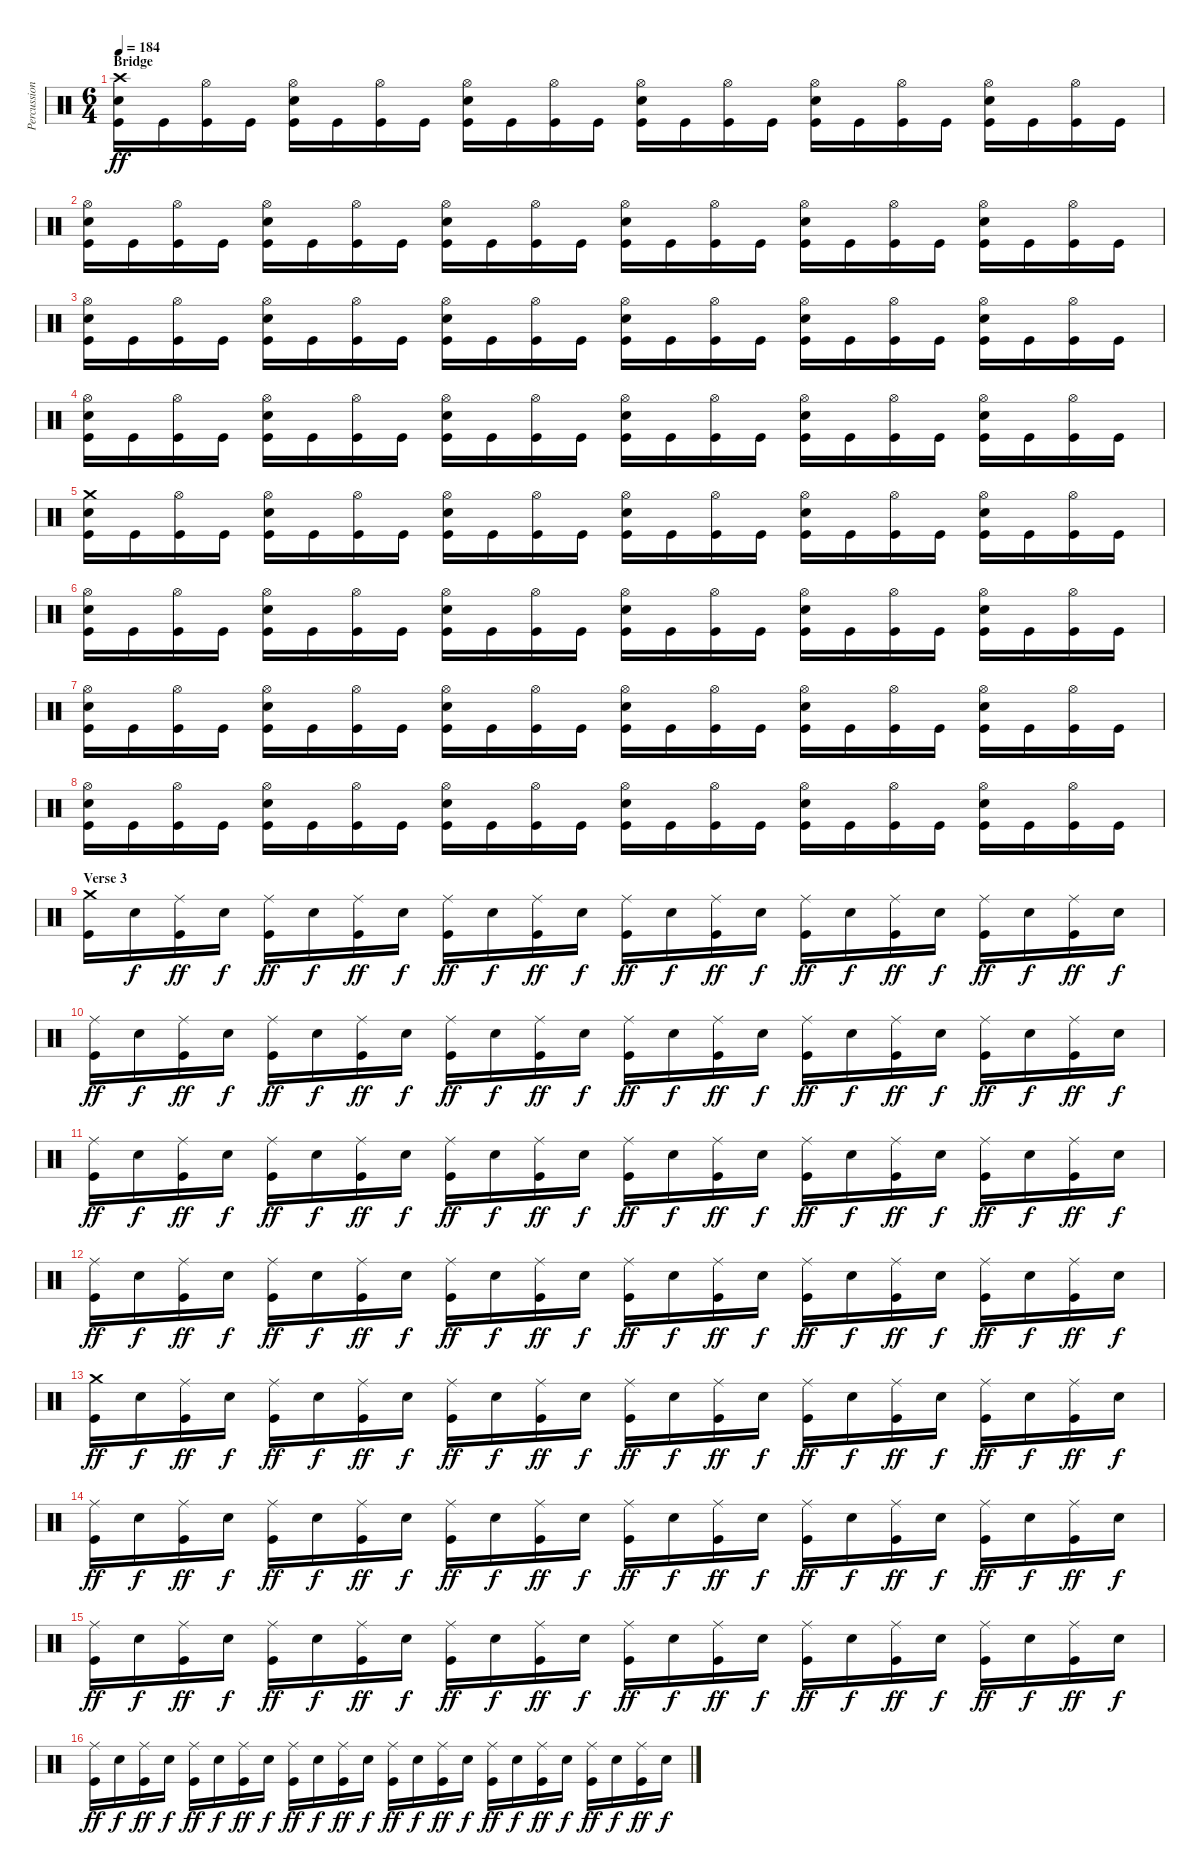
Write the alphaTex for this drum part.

\track ("Percussion" "Percussion") {instrument percussion}
\staff {score}
\articulation defaults
\ts (6 4)
\section ("" "Bridge")
\tempo 184
\clef neutral
\ks c
("Crash high (hit)" "Electric Snare (hit)" "Kick (hit)").16{dy ff} "Kick (hit)".16 ("Hi-Hat (open)" "Kick (hit)").16 "Kick (hit)".16 ("Hi-Hat (open)" "Electric Snare (hit)" "Kick (hit)").16 "Kick (hit)".16 ("Hi-Hat (open)" "Kick (hit)").16 "Kick (hit)".16 ("Hi-Hat (open)" "Electric Snare (hit)" "Kick (hit)").16 "Kick (hit)".16 ("Hi-Hat (open)" "Kick (hit)").16 "Kick (hit)".16 ("Hi-Hat (open)" "Electric Snare (hit)" "Kick (hit)").16 "Kick (hit)".16 ("Hi-Hat (open)" "Kick (hit)").16 "Kick (hit)".16 ("Hi-Hat (open)" "Electric Snare (hit)" "Kick (hit)").16 "Kick (hit)".16 ("Hi-Hat (open)" "Kick (hit)").16 "Kick (hit)".16 ("Hi-Hat (open)" "Electric Snare (hit)" "Kick (hit)").16 "Kick (hit)".16 ("Hi-Hat (open)" "Kick (hit)").16 "Kick (hit)".16 |
("Hi-Hat (open)" "Electric Snare (hit)" "Kick (hit)").16 "Kick (hit)".16 ("Hi-Hat (open)" "Kick (hit)").16 "Kick (hit)".16 ("Hi-Hat (open)" "Electric Snare (hit)" "Kick (hit)").16 "Kick (hit)".16 ("Hi-Hat (open)" "Kick (hit)").16 "Kick (hit)".16 ("Hi-Hat (open)" "Electric Snare (hit)" "Kick (hit)").16 "Kick (hit)".16 ("Hi-Hat (open)" "Kick (hit)").16 "Kick (hit)".16 ("Hi-Hat (open)" "Electric Snare (hit)" "Kick (hit)").16 "Kick (hit)".16 ("Hi-Hat (open)" "Kick (hit)").16 "Kick (hit)".16 ("Hi-Hat (open)" "Electric Snare (hit)" "Kick (hit)").16 "Kick (hit)".16 ("Hi-Hat (open)" "Kick (hit)").16 "Kick (hit)".16 ("Hi-Hat (open)" "Electric Snare (hit)" "Kick (hit)").16 "Kick (hit)".16 ("Hi-Hat (open)" "Kick (hit)").16 "Kick (hit)".16 |
("Hi-Hat (open)" "Electric Snare (hit)" "Kick (hit)").16 "Kick (hit)".16 ("Hi-Hat (open)" "Kick (hit)").16 "Kick (hit)".16 ("Hi-Hat (open)" "Electric Snare (hit)" "Kick (hit)").16 "Kick (hit)".16 ("Hi-Hat (open)" "Kick (hit)").16 "Kick (hit)".16 ("Hi-Hat (open)" "Electric Snare (hit)" "Kick (hit)").16 "Kick (hit)".16 ("Hi-Hat (open)" "Kick (hit)").16 "Kick (hit)".16 ("Hi-Hat (open)" "Electric Snare (hit)" "Kick (hit)").16 "Kick (hit)".16 ("Hi-Hat (open)" "Kick (hit)").16 "Kick (hit)".16 ("Hi-Hat (open)" "Electric Snare (hit)" "Kick (hit)").16 "Kick (hit)".16 ("Hi-Hat (open)" "Kick (hit)").16 "Kick (hit)".16 ("Hi-Hat (open)" "Electric Snare (hit)" "Kick (hit)").16 "Kick (hit)".16 ("Hi-Hat (open)" "Kick (hit)").16 "Kick (hit)".16 |
("Hi-Hat (open)" "Electric Snare (hit)" "Kick (hit)").16 "Kick (hit)".16 ("Hi-Hat (open)" "Kick (hit)").16 "Kick (hit)".16 ("Hi-Hat (open)" "Electric Snare (hit)" "Kick (hit)").16 "Kick (hit)".16 ("Hi-Hat (open)" "Kick (hit)").16 "Kick (hit)".16 ("Hi-Hat (open)" "Electric Snare (hit)" "Kick (hit)").16 "Kick (hit)".16 ("Hi-Hat (open)" "Kick (hit)").16 "Kick (hit)".16 ("Hi-Hat (open)" "Electric Snare (hit)" "Kick (hit)").16 "Kick (hit)".16 ("Hi-Hat (open)" "Kick (hit)").16 "Kick (hit)".16 ("Hi-Hat (open)" "Electric Snare (hit)" "Kick (hit)").16 "Kick (hit)".16 ("Hi-Hat (open)" "Kick (hit)").16 "Kick (hit)".16 ("Hi-Hat (open)" "Electric Snare (hit)" "Kick (hit)").16 "Kick (hit)".16 ("Hi-Hat (open)" "Kick (hit)").16 "Kick (hit)".16 |
("Crash medium (hit)" "Electric Snare (hit)" "Kick (hit)").16 "Kick (hit)".16 ("Hi-Hat (open)" "Kick (hit)").16 "Kick (hit)".16 ("Hi-Hat (open)" "Electric Snare (hit)" "Kick (hit)").16 "Kick (hit)".16 ("Hi-Hat (open)" "Kick (hit)").16 "Kick (hit)".16 ("Hi-Hat (open)" "Electric Snare (hit)" "Kick (hit)").16 "Kick (hit)".16 ("Hi-Hat (open)" "Kick (hit)").16 "Kick (hit)".16 ("Hi-Hat (open)" "Electric Snare (hit)" "Kick (hit)").16 "Kick (hit)".16 ("Hi-Hat (open)" "Kick (hit)").16 "Kick (hit)".16 ("Hi-Hat (open)" "Electric Snare (hit)" "Kick (hit)").16 "Kick (hit)".16 ("Hi-Hat (open)" "Kick (hit)").16 "Kick (hit)".16 ("Hi-Hat (open)" "Electric Snare (hit)" "Kick (hit)").16 "Kick (hit)".16 ("Hi-Hat (open)" "Kick (hit)").16 "Kick (hit)".16 |
("Hi-Hat (open)" "Electric Snare (hit)" "Kick (hit)").16 "Kick (hit)".16 ("Hi-Hat (open)" "Kick (hit)").16 "Kick (hit)".16 ("Hi-Hat (open)" "Electric Snare (hit)" "Kick (hit)").16 "Kick (hit)".16 ("Hi-Hat (open)" "Kick (hit)").16 "Kick (hit)".16 ("Hi-Hat (open)" "Electric Snare (hit)" "Kick (hit)").16 "Kick (hit)".16 ("Hi-Hat (open)" "Kick (hit)").16 "Kick (hit)".16 ("Hi-Hat (open)" "Electric Snare (hit)" "Kick (hit)").16 "Kick (hit)".16 ("Hi-Hat (open)" "Kick (hit)").16 "Kick (hit)".16 ("Hi-Hat (open)" "Electric Snare (hit)" "Kick (hit)").16 "Kick (hit)".16 ("Hi-Hat (open)" "Kick (hit)").16 "Kick (hit)".16 ("Hi-Hat (open)" "Electric Snare (hit)" "Kick (hit)").16 "Kick (hit)".16 ("Hi-Hat (open)" "Kick (hit)").16 "Kick (hit)".16 |
("Hi-Hat (open)" "Electric Snare (hit)" "Kick (hit)").16 "Kick (hit)".16 ("Hi-Hat (open)" "Kick (hit)").16 "Kick (hit)".16 ("Hi-Hat (open)" "Electric Snare (hit)" "Kick (hit)").16 "Kick (hit)".16 ("Hi-Hat (open)" "Kick (hit)").16 "Kick (hit)".16 ("Hi-Hat (open)" "Electric Snare (hit)" "Kick (hit)").16 "Kick (hit)".16 ("Hi-Hat (open)" "Kick (hit)").16 "Kick (hit)".16 ("Hi-Hat (open)" "Electric Snare (hit)" "Kick (hit)").16 "Kick (hit)".16 ("Hi-Hat (open)" "Kick (hit)").16 "Kick (hit)".16 ("Hi-Hat (open)" "Electric Snare (hit)" "Kick (hit)").16 "Kick (hit)".16 ("Hi-Hat (open)" "Kick (hit)").16 "Kick (hit)".16 ("Hi-Hat (open)" "Electric Snare (hit)" "Kick (hit)").16 "Kick (hit)".16 ("Hi-Hat (open)" "Kick (hit)").16 "Kick (hit)".16 |
("Hi-Hat (open)" "Electric Snare (hit)" "Kick (hit)").16 "Kick (hit)".16 ("Hi-Hat (open)" "Kick (hit)").16 "Kick (hit)".16 ("Hi-Hat (open)" "Electric Snare (hit)" "Kick (hit)").16 "Kick (hit)".16 ("Hi-Hat (open)" "Kick (hit)").16 "Kick (hit)".16 ("Hi-Hat (open)" "Electric Snare (hit)" "Kick (hit)").16 "Kick (hit)".16 ("Hi-Hat (open)" "Kick (hit)").16 "Kick (hit)".16 ("Hi-Hat (open)" "Electric Snare (hit)" "Kick (hit)").16 "Kick (hit)".16 ("Hi-Hat (open)" "Kick (hit)").16 "Kick (hit)".16 ("Hi-Hat (open)" "Electric Snare (hit)" "Kick (hit)").16 "Kick (hit)".16 ("Hi-Hat (open)" "Kick (hit)").16 "Kick (hit)".16 ("Hi-Hat (open)" "Electric Snare (hit)" "Kick (hit)").16 "Kick (hit)".16 ("Hi-Hat (open)" "Kick (hit)").16 "Kick (hit)".16 |
\section ("" "Verse 3")
("Crash medium (hit)" "Kick (hit)").16 "Electric Snare (hit)".16{dy f} ("Ride (middle)" "Kick (hit)").16{dy ff} "Electric Snare (hit)".16{dy f} ("Ride (middle)" "Kick (hit)").16{dy ff} "Electric Snare (hit)".16{dy f} ("Ride (middle)" "Kick (hit)").16{dy ff} "Electric Snare (hit)".16{dy f} ("Ride (middle)" "Kick (hit)").16{dy ff} "Electric Snare (hit)".16{dy f} ("Ride (middle)" "Kick (hit)").16{dy ff} "Electric Snare (hit)".16{dy f} ("Ride (middle)" "Kick (hit)").16{dy ff} "Electric Snare (hit)".16{dy f} ("Ride (middle)" "Kick (hit)").16{dy ff} "Electric Snare (hit)".16{dy f} ("Ride (middle)" "Kick (hit)").16{dy ff} "Electric Snare (hit)".16{dy f} ("Ride (middle)" "Kick (hit)").16{dy ff} "Electric Snare (hit)".16{dy f} ("Ride (middle)" "Kick (hit)").16{dy ff} "Electric Snare (hit)".16{dy f} ("Ride (middle)" "Kick (hit)").16{dy ff} "Electric Snare (hit)".16{dy f} |
("Ride (middle)" "Kick (hit)").16{dy ff} "Electric Snare (hit)".16{dy f} ("Ride (middle)" "Kick (hit)").16{dy ff} "Electric Snare (hit)".16{dy f} ("Ride (middle)" "Kick (hit)").16{dy ff} "Electric Snare (hit)".16{dy f} ("Ride (middle)" "Kick (hit)").16{dy ff} "Electric Snare (hit)".16{dy f} ("Ride (middle)" "Kick (hit)").16{dy ff} "Electric Snare (hit)".16{dy f} ("Ride (middle)" "Kick (hit)").16{dy ff} "Electric Snare (hit)".16{dy f} ("Ride (middle)" "Kick (hit)").16{dy ff} "Electric Snare (hit)".16{dy f} ("Ride (middle)" "Kick (hit)").16{dy ff} "Electric Snare (hit)".16{dy f} ("Ride (middle)" "Kick (hit)").16{dy ff} "Electric Snare (hit)".16{dy f} ("Ride (middle)" "Kick (hit)").16{dy ff} "Electric Snare (hit)".16{dy f} ("Ride (middle)" "Kick (hit)").16{dy ff} "Electric Snare (hit)".16{dy f} ("Ride (middle)" "Kick (hit)").16{dy ff} "Electric Snare (hit)".16{dy f} |
("Ride (middle)" "Kick (hit)").16{dy ff} "Electric Snare (hit)".16{dy f} ("Ride (middle)" "Kick (hit)").16{dy ff} "Electric Snare (hit)".16{dy f} ("Ride (middle)" "Kick (hit)").16{dy ff} "Electric Snare (hit)".16{dy f} ("Ride (middle)" "Kick (hit)").16{dy ff} "Electric Snare (hit)".16{dy f} ("Ride (middle)" "Kick (hit)").16{dy ff} "Electric Snare (hit)".16{dy f} ("Ride (middle)" "Kick (hit)").16{dy ff} "Electric Snare (hit)".16{dy f} ("Ride (middle)" "Kick (hit)").16{dy ff} "Electric Snare (hit)".16{dy f} ("Ride (middle)" "Kick (hit)").16{dy ff} "Electric Snare (hit)".16{dy f} ("Ride (middle)" "Kick (hit)").16{dy ff} "Electric Snare (hit)".16{dy f} ("Ride (middle)" "Kick (hit)").16{dy ff} "Electric Snare (hit)".16{dy f} ("Ride (middle)" "Kick (hit)").16{dy ff} "Electric Snare (hit)".16{dy f} ("Ride (middle)" "Kick (hit)").16{dy ff} "Electric Snare (hit)".16{dy f} |
("Ride (middle)" "Kick (hit)").16{dy ff} "Electric Snare (hit)".16{dy f} ("Ride (middle)" "Kick (hit)").16{dy ff} "Electric Snare (hit)".16{dy f} ("Ride (middle)" "Kick (hit)").16{dy ff} "Electric Snare (hit)".16{dy f} ("Ride (middle)" "Kick (hit)").16{dy ff} "Electric Snare (hit)".16{dy f} ("Ride (middle)" "Kick (hit)").16{dy ff} "Electric Snare (hit)".16{dy f} ("Ride (middle)" "Kick (hit)").16{dy ff} "Electric Snare (hit)".16{dy f} ("Ride (middle)" "Kick (hit)").16{dy ff} "Electric Snare (hit)".16{dy f} ("Ride (middle)" "Kick (hit)").16{dy ff} "Electric Snare (hit)".16{dy f} ("Ride (middle)" "Kick (hit)").16{dy ff} "Electric Snare (hit)".16{dy f} ("Ride (middle)" "Kick (hit)").16{dy ff} "Electric Snare (hit)".16{dy f} ("Ride (middle)" "Kick (hit)").16{dy ff} "Electric Snare (hit)".16{dy f} ("Ride (middle)" "Kick (hit)").16{dy ff} "Electric Snare (hit)".16{dy f} |
("Crash medium (hit)" "Kick (hit)").16{dy ff} "Electric Snare (hit)".16{dy f} ("Ride (middle)" "Kick (hit)").16{dy ff} "Electric Snare (hit)".16{dy f} ("Ride (middle)" "Kick (hit)").16{dy ff} "Electric Snare (hit)".16{dy f} ("Ride (middle)" "Kick (hit)").16{dy ff} "Electric Snare (hit)".16{dy f} ("Ride (middle)" "Kick (hit)").16{dy ff} "Electric Snare (hit)".16{dy f} ("Ride (middle)" "Kick (hit)").16{dy ff} "Electric Snare (hit)".16{dy f} ("Ride (middle)" "Kick (hit)").16{dy ff} "Electric Snare (hit)".16{dy f} ("Ride (middle)" "Kick (hit)").16{dy ff} "Electric Snare (hit)".16{dy f} ("Ride (middle)" "Kick (hit)").16{dy ff} "Electric Snare (hit)".16{dy f} ("Ride (middle)" "Kick (hit)").16{dy ff} "Electric Snare (hit)".16{dy f} ("Ride (middle)" "Kick (hit)").16{dy ff} "Electric Snare (hit)".16{dy f} ("Ride (middle)" "Kick (hit)").16{dy ff} "Electric Snare (hit)".16{dy f} |
("Ride (middle)" "Kick (hit)").16{dy ff} "Electric Snare (hit)".16{dy f} ("Ride (middle)" "Kick (hit)").16{dy ff} "Electric Snare (hit)".16{dy f} ("Ride (middle)" "Kick (hit)").16{dy ff} "Electric Snare (hit)".16{dy f} ("Ride (middle)" "Kick (hit)").16{dy ff} "Electric Snare (hit)".16{dy f} ("Ride (middle)" "Kick (hit)").16{dy ff} "Electric Snare (hit)".16{dy f} ("Ride (middle)" "Kick (hit)").16{dy ff} "Electric Snare (hit)".16{dy f} ("Ride (middle)" "Kick (hit)").16{dy ff} "Electric Snare (hit)".16{dy f} ("Ride (middle)" "Kick (hit)").16{dy ff} "Electric Snare (hit)".16{dy f} ("Ride (middle)" "Kick (hit)").16{dy ff} "Electric Snare (hit)".16{dy f} ("Ride (middle)" "Kick (hit)").16{dy ff} "Electric Snare (hit)".16{dy f} ("Ride (middle)" "Kick (hit)").16{dy ff} "Electric Snare (hit)".16{dy f} ("Ride (middle)" "Kick (hit)").16{dy ff} "Electric Snare (hit)".16{dy f} |
("Ride (middle)" "Kick (hit)").16{dy ff} "Electric Snare (hit)".16{dy f} ("Ride (middle)" "Kick (hit)").16{dy ff} "Electric Snare (hit)".16{dy f} ("Ride (middle)" "Kick (hit)").16{dy ff} "Electric Snare (hit)".16{dy f} ("Ride (middle)" "Kick (hit)").16{dy ff} "Electric Snare (hit)".16{dy f} ("Ride (middle)" "Kick (hit)").16{dy ff} "Electric Snare (hit)".16{dy f} ("Ride (middle)" "Kick (hit)").16{dy ff} "Electric Snare (hit)".16{dy f} ("Ride (middle)" "Kick (hit)").16{dy ff} "Electric Snare (hit)".16{dy f} ("Ride (middle)" "Kick (hit)").16{dy ff} "Electric Snare (hit)".16{dy f} ("Ride (middle)" "Kick (hit)").16{dy ff} "Electric Snare (hit)".16{dy f} ("Ride (middle)" "Kick (hit)").16{dy ff} "Electric Snare (hit)".16{dy f} ("Ride (middle)" "Kick (hit)").16{dy ff} "Electric Snare (hit)".16{dy f} ("Ride (middle)" "Kick (hit)").16{dy ff} "Electric Snare (hit)".16{dy f} |
("Ride (middle)" "Kick (hit)").16{dy ff} "Electric Snare (hit)".16{dy f} ("Ride (middle)" "Kick (hit)").16{dy ff} "Electric Snare (hit)".16{dy f} ("Ride (middle)" "Kick (hit)").16{dy ff} "Electric Snare (hit)".16{dy f} ("Ride (middle)" "Kick (hit)").16{dy ff} "Electric Snare (hit)".16{dy f} ("Ride (middle)" "Kick (hit)").16{dy ff} "Electric Snare (hit)".16{dy f} ("Ride (middle)" "Kick (hit)").16{dy ff} "Electric Snare (hit)".16{dy f} ("Ride (middle)" "Kick (hit)").16{dy ff} "Electric Snare (hit)".16{dy f} ("Ride (middle)" "Kick (hit)").16{dy ff} "Electric Snare (hit)".16{dy f} ("Ride (middle)" "Kick (hit)").16{dy ff} "Electric Snare (hit)".16{dy f} ("Ride (middle)" "Kick (hit)").16{dy ff} "Electric Snare (hit)".16{dy f} ("Ride (middle)" "Kick (hit)").16{dy ff} "Electric Snare (hit)".16{dy f} ("Ride (middle)" "Kick (hit)").16{dy ff} "Electric Snare (hit)".16{dy f}
